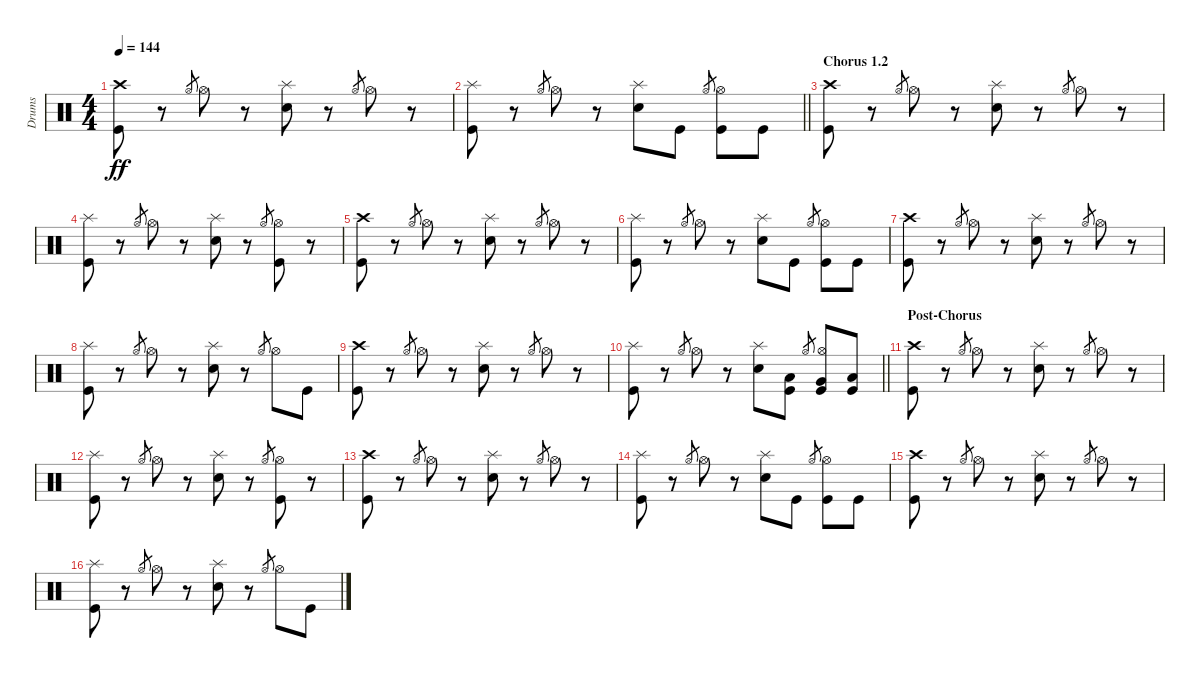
\track ("Drums" "Drums") {instrument percussion}
\staff {score}
\articulation defaults
\ts (4 4)
\tempo 144
\clef neutral
\ks c
("Crash high (hit)" "Kick (hit)").8{dy ff} r.8 "Hi-Hat (open)".8{gr} "Hi-Hat (open)".8 r.8 ("Splash (hit)" "Snare (hit) 2").8 r.8 "Hi-Hat (open)".8{gr} "Hi-Hat (open)".8 r.8 |
\barLineRight lightlight
("Splash (hit)" "Kick (hit)").8 r.8 "Hi-Hat (open)".8{gr} "Hi-Hat (open)".8 r.8 ("Splash (hit)" "Snare (hit) 2").8 "Kick (hit)".8 "Hi-Hat (open)".8{gr} ("Hi-Hat (open)" "Kick (hit)").8 "Kick (hit)".8 |
\section ("" "Chorus 1.2")
("Crash high (hit)" "Kick (hit)").8 r.8 "Hi-Hat (open)".8{gr} "Hi-Hat (open)".8 r.8 ("Splash (hit)" "Snare (hit) 2").8 r.8 "Hi-Hat (open)".8{gr} "Hi-Hat (open)".8 r.8 |
("Splash (hit)" "Kick (hit)").8 r.8 "Hi-Hat (open)".8{gr} "Hi-Hat (open)".8 r.8 ("Splash (hit)" "Snare (hit) 2").8 r.8 "Hi-Hat (open)".8{gr} ("Hi-Hat (open)" "Kick (hit)").8 r.8 |
("Crash high (hit)" "Kick (hit)").8 r.8 "Hi-Hat (open)".8{gr} "Hi-Hat (open)".8 r.8 ("Splash (hit)" "Snare (hit) 2").8 r.8 "Hi-Hat (open)".8{gr} "Hi-Hat (open)".8 r.8 |
("Splash (hit)" "Kick (hit)").8 r.8 "Hi-Hat (open)".8{gr} "Hi-Hat (open)".8 r.8 ("Splash (hit)" "Snare (hit) 2").8 "Kick (hit)".8 "Hi-Hat (open)".8{gr} ("Hi-Hat (open)" "Kick (hit)").8 "Kick (hit)".8 |
("Crash high (hit)" "Kick (hit)").8 r.8 "Hi-Hat (open)".8{gr} "Hi-Hat (open)".8 r.8 ("Splash (hit)" "Snare (hit) 2").8 r.8 "Hi-Hat (open)".8{gr} "Hi-Hat (open)".8 r.8 |
("Splash (hit)" "Kick (hit)").8 r.8 "Hi-Hat (open)".8{gr} "Hi-Hat (open)".8 r.8 ("Splash (hit)" "Snare (hit) 2").8 r.8 "Hi-Hat (open)".8{gr} "Hi-Hat (open)".8 "Kick (hit)".8 |
("Crash high (hit)" "Kick (hit)").8 r.8 "Hi-Hat (open)".8{gr} "Hi-Hat (open)".8 r.8 ("Splash (hit)" "Snare (hit) 2").8 r.8 "Hi-Hat (open)".8{gr} "Hi-Hat (open)".8 r.8 |
\barLineRight lightlight
("Splash (hit)" "Kick (hit)").8 r.8 "Hi-Hat (open)".8{gr} "Hi-Hat (open)".8 r.8 ("Splash (hit)" "Snare (hit) 2").8 ("Low Tom (hit)" "Kick (hit)").8 "Hi-Hat (open)".8{gr} ("Hi-Hat (open)" "Very Low Tom (hit)" "Kick (hit)").8 ("Low Floor Tom (hit)" "Kick (hit)").8 |
\section ("" "Post-Chorus")
("Crash high (hit)" "Kick (hit)").8 r.8 "Hi-Hat (open)".8{gr} "Hi-Hat (open)".8 r.8 ("Splash (hit)" "Snare (hit) 2").8 r.8 "Hi-Hat (open)".8{gr} "Hi-Hat (open)".8 r.8 |
("Splash (hit)" "Kick (hit)").8 r.8 "Hi-Hat (open)".8{gr} "Hi-Hat (open)".8 r.8 ("Splash (hit)" "Snare (hit) 2").8 r.8 "Hi-Hat (open)".8{gr} ("Hi-Hat (open)" "Kick (hit)").8 r.8 |
("Crash high (hit)" "Kick (hit)").8 r.8 "Hi-Hat (open)".8{gr} "Hi-Hat (open)".8 r.8 ("Splash (hit)" "Snare (hit) 2").8 r.8 "Hi-Hat (open)".8{gr} "Hi-Hat (open)".8 r.8 |
("Splash (hit)" "Kick (hit)").8 r.8 "Hi-Hat (open)".8{gr} "Hi-Hat (open)".8 r.8 ("Splash (hit)" "Snare (hit) 2").8 "Kick (hit)".8 "Hi-Hat (open)".8{gr} ("Hi-Hat (open)" "Kick (hit)").8 "Kick (hit)".8 |
("Crash high (hit)" "Kick (hit)").8 r.8 "Hi-Hat (open)".8{gr} "Hi-Hat (open)".8 r.8 ("Splash (hit)" "Snare (hit) 2").8 r.8 "Hi-Hat (open)".8{gr} "Hi-Hat (open)".8 r.8 |
("Splash (hit)" "Kick (hit)").8 r.8 "Hi-Hat (open)".8{gr} "Hi-Hat (open)".8 r.8 ("Splash (hit)" "Snare (hit) 2").8 r.8 "Hi-Hat (open)".8{gr} "Hi-Hat (open)".8 "Kick (hit)".8
